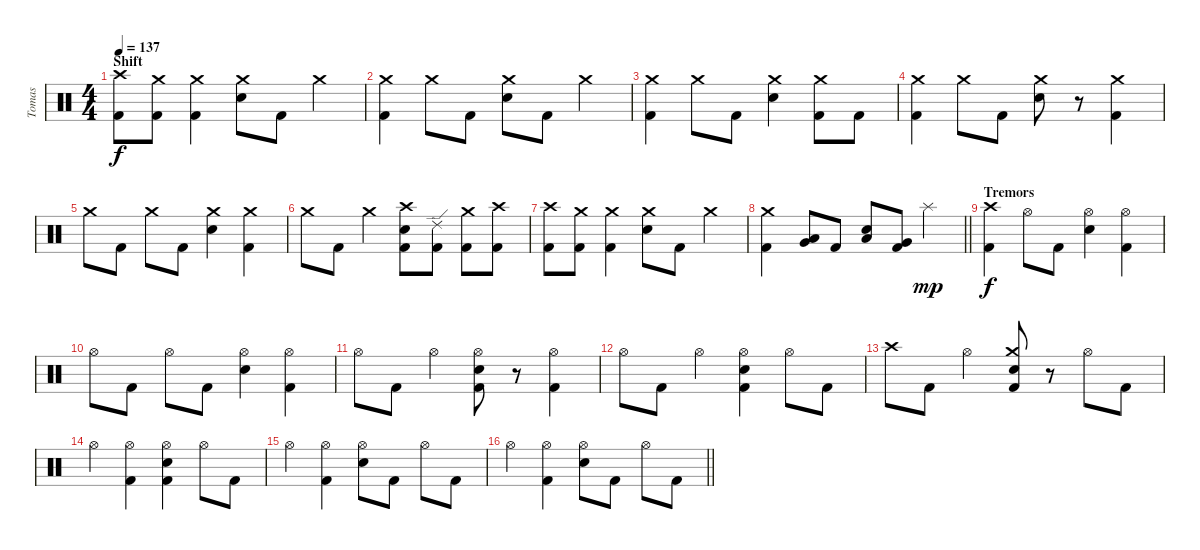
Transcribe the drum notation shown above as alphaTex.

\track ("Tomas" "Tomas") {instrument percussion}
\staff {score}
\articulation defaults
\ts (4 4)
\section ("" "Shift")
\tempo 137
\clef neutral
\ks c
("Crash high (hit)" "Kick (hit) 2").8{dy f} ("Crash medium (hit)" "Kick (hit) 2").8 ("Crash medium (hit)" "Kick (hit) 2").4 ("Crash medium (hit)" "Electric Snare (hit)").8 "Kick (hit) 2".8 "Crash medium (hit)".4 |
("Crash medium (hit)" "Kick (hit) 2").4 "Crash medium (hit)".8 "Kick (hit) 2".8 ("Crash medium (hit)" "Electric Snare (hit)").8 "Kick (hit) 2".8 "Crash medium (hit)".4 |
("Crash medium (hit)" "Kick (hit) 2").4 "Crash medium (hit)".8 "Kick (hit) 2".8 ("Crash medium (hit)" "Electric Snare (hit)").4 ("Crash medium (hit)" "Kick (hit) 2").8 "Kick (hit) 2".8 |
("Crash medium (hit)" "Kick (hit) 2").4 "Crash medium (hit)".8 "Kick (hit) 2".8 ("Crash medium (hit)" "Electric Snare (hit)").8 r.8 ("Crash medium (hit)" "Kick (hit) 2").4 |
"Crash medium (hit)".8 "Kick (hit) 2".8 "Crash medium (hit)".8 "Kick (hit) 2".8 ("Crash medium (hit)" "Electric Snare (hit)").4 ("Crash medium (hit)" "Kick (hit) 2").4 |
"Crash medium (hit)".8 "Kick (hit) 2".8 "Crash medium (hit)".4 ("Crash high (hit)" "Electric Snare (hit)" "Kick (hit) 2").8 ("Ride (edge) 2" "Kick (hit) 2").8 ("Crash medium (hit)" "Kick (hit) 2").8 ("Crash high (hit)" "Kick (hit) 2").8 |
("Crash high (hit)" "Kick (hit) 2").8 ("Crash medium (hit)" "Kick (hit) 2").8 ("Crash medium (hit)" "Kick (hit) 2").4 ("Crash medium (hit)" "Electric Snare (hit)").8 "Kick (hit) 2".8 "Crash medium (hit)".4 |
\barLineRight lightlight
("Crash medium (hit)" "Kick (hit) 2").4 ("Low Tom (hit)" "Very Low Tom (hit)").8 "Kick (hit) 2".8 ("Low Tom (hit)" "Electric Snare (hit)").8 ("Very Low Tom (hit)" "Kick (hit) 2").8 "Splash (hit)".4{dy mp} |
\section ("" "Tremors")
("Crash high (hit)" "Kick (hit) 2").4{dy f} "Hi-Hat (open)".8 "Kick (hit) 2".8 ("Hi-Hat (open)" "Electric Snare (hit)").4 ("Hi-Hat (open)" "Kick (hit) 2").4 |
"Hi-Hat (open)".8 "Kick (hit) 2".8 "Hi-Hat (open)".8 "Kick (hit) 2".8 ("Hi-Hat (open)" "Electric Snare (hit)").4 ("Hi-Hat (open)" "Kick (hit) 2").4 |
"Hi-Hat (open)".8 "Kick (hit) 2".8 "Hi-Hat (open)".4 ("Hi-Hat (open)" "Electric Snare (hit)" "Kick (hit) 2").8 r.8 ("Hi-Hat (open)" "Kick (hit) 2").4 |
"Hi-Hat (open)".8 "Kick (hit) 2".8 "Hi-Hat (open)".4 ("Hi-Hat (open)" "Electric Snare (hit)" "Kick (hit) 2").4 "Hi-Hat (open)".8 "Kick (hit) 2".8 |
"Crash high (hit)".8 "Kick (hit) 2".8 "Hi-Hat (open)".4 ("Crash medium (hit)" "Electric Snare (hit)" "Kick (hit) 2").8 r.8 "Hi-Hat (open)".8 "Kick (hit) 2".8 |
"Hi-Hat (open)".4 ("Hi-Hat (open)" "Kick (hit) 2").4 ("Hi-Hat (open)" "Electric Snare (hit)" "Kick (hit) 2").4 "Hi-Hat (open)".8 "Kick (hit) 2".8 |
"Hi-Hat (open)".4 ("Hi-Hat (open)" "Kick (hit) 2").4 ("Hi-Hat (open)" "Electric Snare (hit)").8 "Kick (hit) 2".8 "Hi-Hat (open)".8 "Kick (hit) 2".8 |
\barLineRight lightlight "Hi-Hat (open)".4
("Hi-Hat (open)" "Kick (hit) 2").4 ("Hi-Hat (open)" "Electric Snare (hit)").8 "Kick (hit) 2".8 "Hi-Hat (open)".8 "Kick (hit) 2".8
